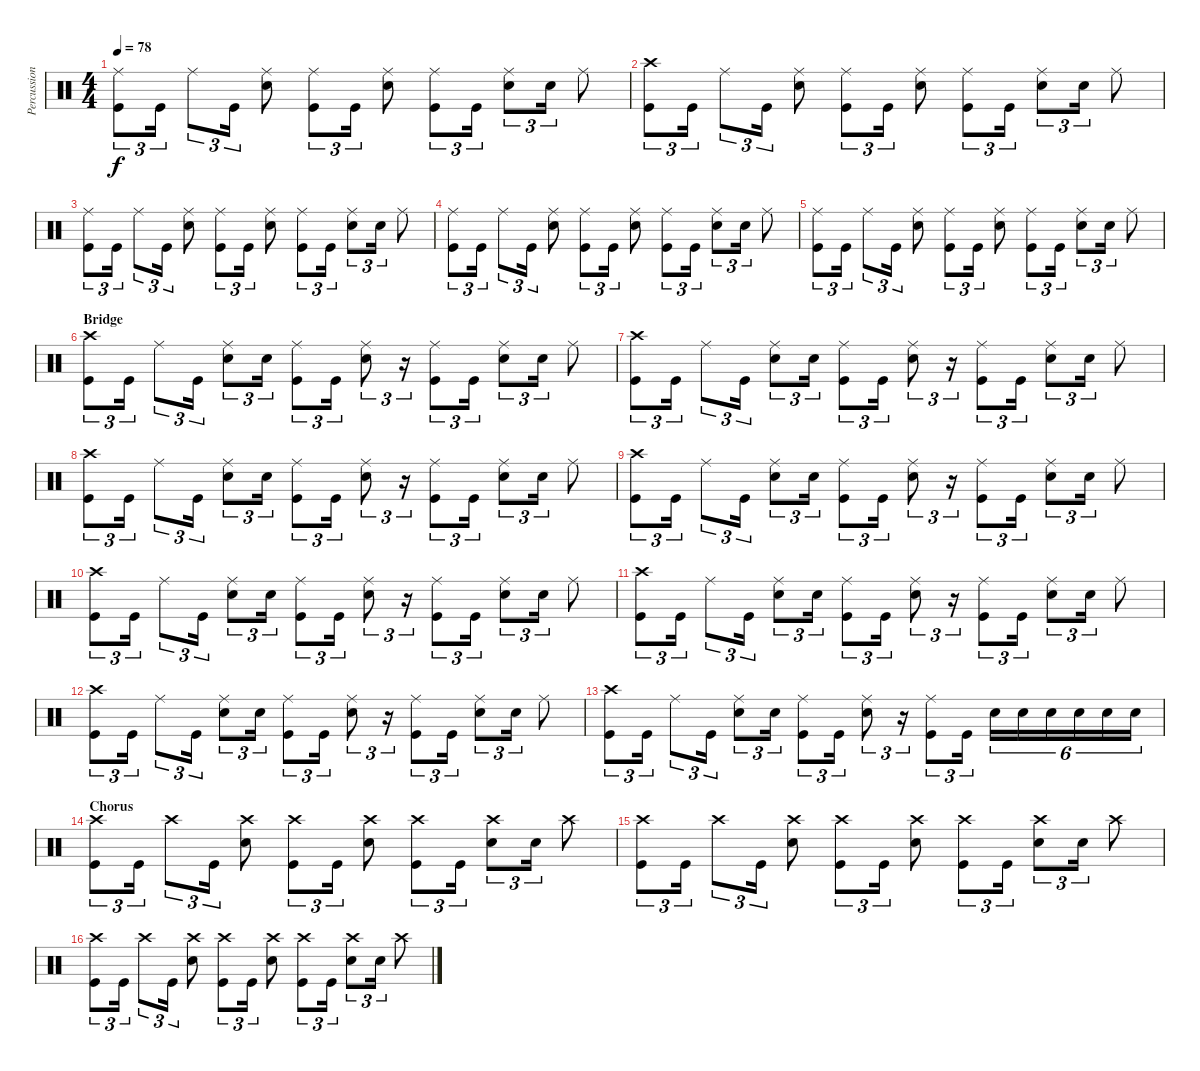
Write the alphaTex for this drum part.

\track ("Percussion" "Percussion") {instrument percussion}
\staff {score}
\articulation defaults
\ts (4 4)
\tempo 78
\clef neutral
\ks c
("Ride (middle)" "Kick (hit)").8{tu (3 2) dy f} "Kick (hit)".16{tu (3 2)} "Ride (middle)".8{tu (3 2)} "Kick (hit)".16{tu (3 2)} ("Ride (middle)" "Snare (hit) 2").8 ("Ride (middle)" "Kick (hit)").8{tu (3 2)} "Kick (hit)".16{tu (3 2)} ("Ride (middle)" "Snare (hit) 2").8 ("Ride (middle)" "Kick (hit)").8{tu (3 2)} "Kick (hit)".16{tu (3 2)} ("Ride (middle)" "Snare (hit) 2").8{tu (3 2)} "Snare (hit) 2".16{tu (3 2)} "Ride (middle)".8 |
("Crash high (hit)" "Kick (hit)").8{tu (3 2)} "Kick (hit)".16{tu (3 2)} "Ride (middle)".8{tu (3 2)} "Kick (hit)".16{tu (3 2)} ("Ride (middle)" "Snare (hit) 2").8 ("Ride (middle)" "Kick (hit)").8{tu (3 2)} "Kick (hit)".16{tu (3 2)} ("Ride (middle)" "Snare (hit) 2").8 ("Ride (middle)" "Kick (hit)").8{tu (3 2)} "Kick (hit)".16{tu (3 2)} ("Ride (middle)" "Snare (hit) 2").8{tu (3 2)} "Snare (hit) 2".16{tu (3 2)} "Ride (middle)".8 |
("Ride (middle)" "Kick (hit)").8{tu (3 2)} "Kick (hit)".16{tu (3 2)} "Ride (middle)".8{tu (3 2)} "Kick (hit)".16{tu (3 2)} ("Ride (middle)" "Snare (hit) 2").8 ("Ride (middle)" "Kick (hit)").8{tu (3 2)} "Kick (hit)".16{tu (3 2)} ("Ride (middle)" "Snare (hit) 2").8 ("Ride (middle)" "Kick (hit)").8{tu (3 2)} "Kick (hit)".16{tu (3 2)} ("Ride (middle)" "Snare (hit) 2").8{tu (3 2)} "Snare (hit) 2".16{tu (3 2)} "Ride (middle)".8 |
("Ride (middle)" "Kick (hit)").8{tu (3 2)} "Kick (hit)".16{tu (3 2)} "Ride (middle)".8{tu (3 2)} "Kick (hit)".16{tu (3 2)} ("Ride (middle)" "Snare (hit) 2").8 ("Ride (middle)" "Kick (hit)").8{tu (3 2)} "Kick (hit)".16{tu (3 2)} ("Ride (middle)" "Snare (hit) 2").8 ("Ride (middle)" "Kick (hit)").8{tu (3 2)} "Kick (hit)".16{tu (3 2)} ("Ride (middle)" "Snare (hit) 2").8{tu (3 2)} "Snare (hit) 2".16{tu (3 2)} "Ride (middle)".8 |
("Ride (middle)" "Kick (hit)").8{tu (3 2)} "Kick (hit)".16{tu (3 2)} "Ride (middle)".8{tu (3 2)} "Kick (hit)".16{tu (3 2)} ("Ride (middle)" "Snare (hit) 2").8 ("Ride (middle)" "Kick (hit)").8{tu (3 2)} "Kick (hit)".16{tu (3 2)} ("Ride (middle)" "Snare (hit) 2").8 ("Ride (middle)" "Kick (hit)").8{tu (3 2)} "Kick (hit)".16{tu (3 2)} ("Ride (middle)" "Snare (hit) 2").8{tu (3 2)} "Snare (hit) 2".16{tu (3 2)} "Ride (middle)".8 |
\section ("" "Bridge")
("Crash high (hit)" "Kick (hit)").8{tu (3 2)} "Kick (hit)".16{tu (3 2)} "Ride (middle)".8{tu (3 2)} "Kick (hit)".16{tu (3 2)} ("Snare (hit) 2" "Ride (middle)").8{tu (3 2)} "Snare (hit) 2".16{tu (3 2)} ("Ride (middle)" "Kick (hit)").8{tu (3 2)} "Kick (hit)".16{tu (3 2)} ("Snare (hit) 2" "Ride (middle)").8{tu (3 2)} r.16{tu (3 2)} ("Ride (middle)" "Kick (hit)").8{tu (3 2)} "Kick (hit)".16{tu (3 2)} ("Snare (hit) 2" "Ride (middle)").8{tu (3 2)} "Snare (hit) 2".16{tu (3 2)} "Ride (middle)".8 |
("Crash high (hit)" "Kick (hit)").8{tu (3 2)} "Kick (hit)".16{tu (3 2)} "Ride (middle)".8{tu (3 2)} "Kick (hit)".16{tu (3 2)} ("Snare (hit) 2" "Ride (middle)").8{tu (3 2)} "Snare (hit) 2".16{tu (3 2)} ("Ride (middle)" "Kick (hit)").8{tu (3 2)} "Kick (hit)".16{tu (3 2)} ("Snare (hit) 2" "Ride (middle)").8{tu (3 2)} r.16{tu (3 2)} ("Ride (middle)" "Kick (hit)").8{tu (3 2)} "Kick (hit)".16{tu (3 2)} ("Snare (hit) 2" "Ride (middle)").8{tu (3 2)} "Snare (hit) 2".16{tu (3 2)} "Ride (middle)".8 |
("Crash high (hit)" "Kick (hit)").8{tu (3 2)} "Kick (hit)".16{tu (3 2)} "Ride (middle)".8{tu (3 2)} "Kick (hit)".16{tu (3 2)} ("Snare (hit) 2" "Ride (middle)").8{tu (3 2)} "Snare (hit) 2".16{tu (3 2)} ("Ride (middle)" "Kick (hit)").8{tu (3 2)} "Kick (hit)".16{tu (3 2)} ("Snare (hit) 2" "Ride (middle)").8{tu (3 2)} r.16{tu (3 2)} ("Ride (middle)" "Kick (hit)").8{tu (3 2)} "Kick (hit)".16{tu (3 2)} ("Snare (hit) 2" "Ride (middle)").8{tu (3 2)} "Snare (hit) 2".16{tu (3 2)} "Ride (middle)".8 |
("Crash high (hit)" "Kick (hit)").8{tu (3 2)} "Kick (hit)".16{tu (3 2)} "Ride (middle)".8{tu (3 2)} "Kick (hit)".16{tu (3 2)} ("Snare (hit) 2" "Ride (middle)").8{tu (3 2)} "Snare (hit) 2".16{tu (3 2)} ("Ride (middle)" "Kick (hit)").8{tu (3 2)} "Kick (hit)".16{tu (3 2)} ("Snare (hit) 2" "Ride (middle)").8{tu (3 2)} r.16{tu (3 2)} ("Ride (middle)" "Kick (hit)").8{tu (3 2)} "Kick (hit)".16{tu (3 2)} ("Snare (hit) 2" "Ride (middle)").8{tu (3 2)} "Snare (hit) 2".16{tu (3 2)} "Ride (middle)".8 |
("Crash high (hit)" "Kick (hit)").8{tu (3 2)} "Kick (hit)".16{tu (3 2)} "Ride (middle)".8{tu (3 2)} "Kick (hit)".16{tu (3 2)} ("Snare (hit) 2" "Ride (middle)").8{tu (3 2)} "Snare (hit) 2".16{tu (3 2)} ("Ride (middle)" "Kick (hit)").8{tu (3 2)} "Kick (hit)".16{tu (3 2)} ("Snare (hit) 2" "Ride (middle)").8{tu (3 2)} r.16{tu (3 2)} ("Ride (middle)" "Kick (hit)").8{tu (3 2)} "Kick (hit)".16{tu (3 2)} ("Snare (hit) 2" "Ride (middle)").8{tu (3 2)} "Snare (hit) 2".16{tu (3 2)} "Ride (middle)".8 |
("Crash high (hit)" "Kick (hit)").8{tu (3 2)} "Kick (hit)".16{tu (3 2)} "Ride (middle)".8{tu (3 2)} "Kick (hit)".16{tu (3 2)} ("Snare (hit) 2" "Ride (middle)").8{tu (3 2)} "Snare (hit) 2".16{tu (3 2)} ("Ride (middle)" "Kick (hit)").8{tu (3 2)} "Kick (hit)".16{tu (3 2)} ("Snare (hit) 2" "Ride (middle)").8{tu (3 2)} r.16{tu (3 2)} ("Ride (middle)" "Kick (hit)").8{tu (3 2)} "Kick (hit)".16{tu (3 2)} ("Snare (hit) 2" "Ride (middle)").8{tu (3 2)} "Snare (hit) 2".16{tu (3 2)} "Ride (middle)".8 |
("Crash high (hit)" "Kick (hit)").8{tu (3 2)} "Kick (hit)".16{tu (3 2)} "Ride (middle)".8{tu (3 2)} "Kick (hit)".16{tu (3 2)} ("Snare (hit) 2" "Ride (middle)").8{tu (3 2)} "Snare (hit) 2".16{tu (3 2)} ("Ride (middle)" "Kick (hit)").8{tu (3 2)} "Kick (hit)".16{tu (3 2)} ("Snare (hit) 2" "Ride (middle)").8{tu (3 2)} r.16{tu (3 2)} ("Ride (middle)" "Kick (hit)").8{tu (3 2)} "Kick (hit)".16{tu (3 2)} ("Snare (hit) 2" "Ride (middle)").8{tu (3 2)} "Snare (hit) 2".16{tu (3 2)} "Ride (middle)".8 |
("Crash high (hit)" "Kick (hit)").8{tu (3 2)} "Kick (hit)".16{tu (3 2)} "Ride (middle)".8{tu (3 2)} "Kick (hit)".16{tu (3 2)} ("Snare (hit) 2" "Ride (middle)").8{tu (3 2)} "Snare (hit) 2".16{tu (3 2)} ("Ride (middle)" "Kick (hit)").8{tu (3 2)} "Kick (hit)".16{tu (3 2)} ("Snare (hit) 2" "Ride (middle)").8{tu (3 2)} r.16{tu (3 2)} ("Ride (middle)" "Kick (hit)").8{tu (3 2)} "Kick (hit)".16{tu (3 2)} "Snare (hit) 2".16{tu (6 4)} "Snare (hit) 2".16{tu (6 4)} "Snare (hit) 2".16{tu (6 4)} "Snare (hit) 2".16{tu (6 4)} "Snare (hit) 2".16{tu (6 4)} "Snare (hit) 2".16{tu (6 4)} |
\section ("" "Chorus")
("Crash high (hit)" "Kick (hit)").8{tu (3 2)} "Kick (hit)".16{tu (3 2)} "Crash high (hit)".8{tu (3 2)} "Kick (hit)".16{tu (3 2)} ("Crash high (hit)" "Snare (hit) 2").8 ("Crash high (hit)" "Kick (hit)").8{tu (3 2)} "Kick (hit)".16{tu (3 2)} ("Crash high (hit)" "Snare (hit) 2").8 ("Crash high (hit)" "Kick (hit)").8{tu (3 2)} "Kick (hit)".16{tu (3 2)} ("Crash high (hit)" "Snare (hit) 2").8{tu (3 2)} "Snare (hit) 2".16{tu (3 2)} "Crash high (hit)".8 |
("Crash high (hit)" "Kick (hit)").8{tu (3 2)} "Kick (hit)".16{tu (3 2)} "Crash high (hit)".8{tu (3 2)} "Kick (hit)".16{tu (3 2)} ("Crash high (hit)" "Snare (hit) 2").8 ("Crash high (hit)" "Kick (hit)").8{tu (3 2)} "Kick (hit)".16{tu (3 2)} ("Crash high (hit)" "Snare (hit) 2").8 ("Crash high (hit)" "Kick (hit)").8{tu (3 2)} "Kick (hit)".16{tu (3 2)} ("Crash high (hit)" "Snare (hit) 2").8{tu (3 2)} "Snare (hit) 2".16{tu (3 2)} "Crash high (hit)".8 |
("Crash high (hit)" "Kick (hit)").8{tu (3 2)} "Kick (hit)".16{tu (3 2)} "Crash high (hit)".8{tu (3 2)} "Kick (hit)".16{tu (3 2)} ("Crash high (hit)" "Snare (hit) 2").8 ("Crash high (hit)" "Kick (hit)").8{tu (3 2)} "Kick (hit)".16{tu (3 2)} ("Crash high (hit)" "Snare (hit) 2").8 ("Crash high (hit)" "Kick (hit)").8{tu (3 2)} "Kick (hit)".16{tu (3 2)} ("Crash high (hit)" "Snare (hit) 2").8{tu (3 2)} "Snare (hit) 2".16{tu (3 2)} "Crash high (hit)".8
